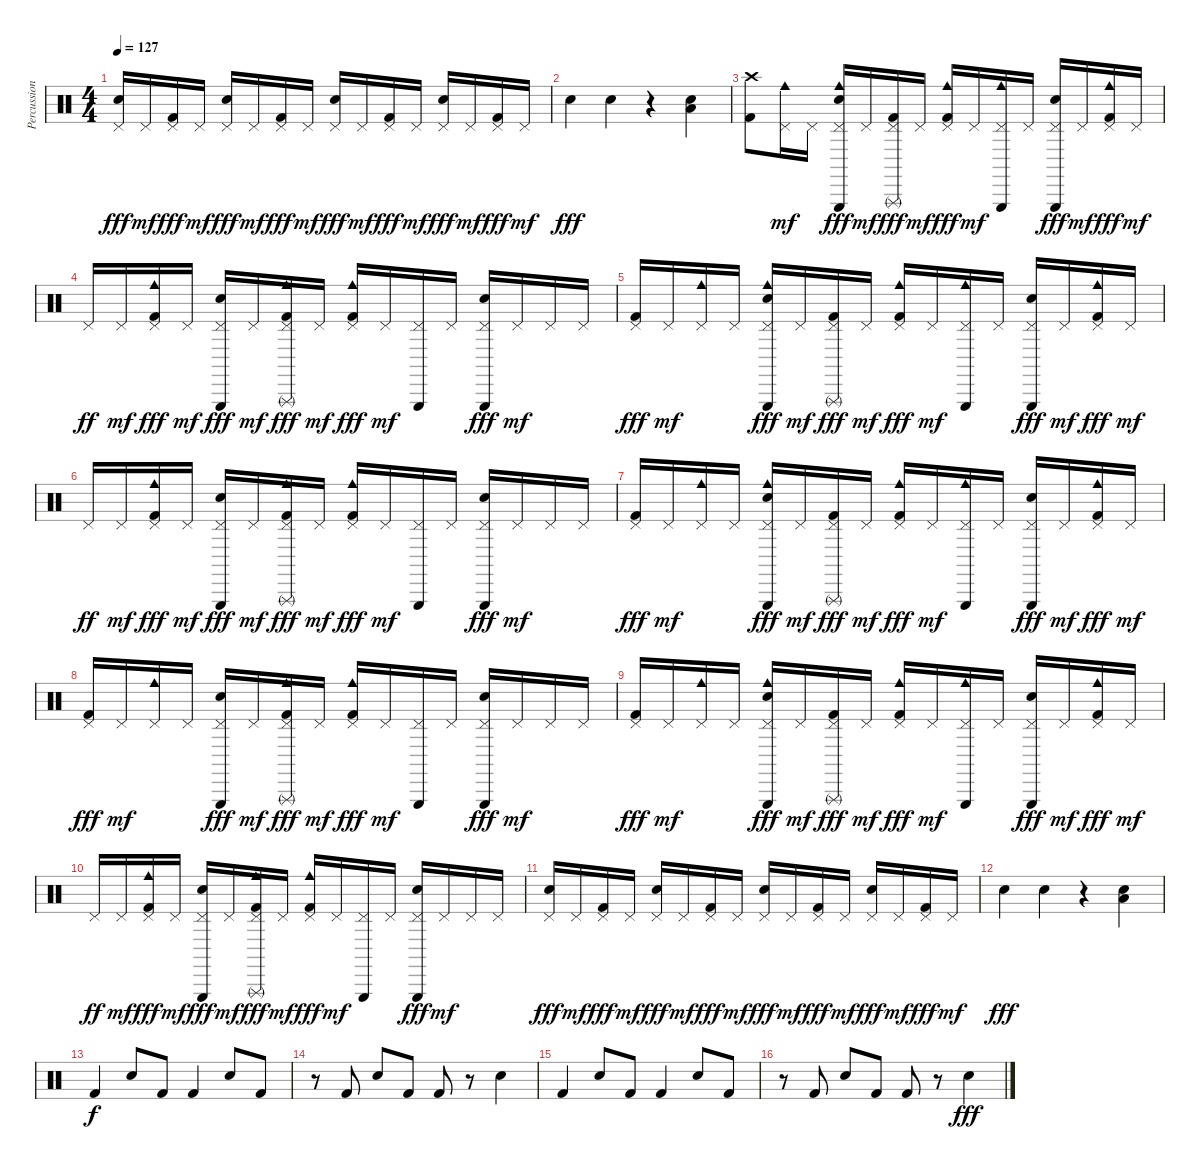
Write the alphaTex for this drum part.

\track ("Percussion" "Percussion") {instrument percussion}
\staff {score}
\articulation defaults
\ts (4 4)
\tempo 127
\clef neutral
\ks c
("Pedal Hi-Hat (hit)" "Electric Snare (hit)").16{dy fff} "Pedal Hi-Hat (hit)".16{dy mf} ("Pedal Hi-Hat (hit)" "Kick (hit) 2").16{dy fff} "Pedal Hi-Hat (hit)".16{dy mf} ("Pedal Hi-Hat (hit)" "Electric Snare (hit)").16{dy fff} "Pedal Hi-Hat (hit)".16{dy mf} ("Pedal Hi-Hat (hit)" "Kick (hit) 2").16{dy fff} "Pedal Hi-Hat (hit)".16{dy mf} ("Pedal Hi-Hat (hit)" "Electric Snare (hit)").16{dy fff} "Pedal Hi-Hat (hit)".16{dy mf} ("Pedal Hi-Hat (hit)" "Kick (hit) 2").16{dy fff} "Pedal Hi-Hat (hit)".16{dy mf} ("Pedal Hi-Hat (hit)" "Electric Snare (hit)").16{dy fff} "Pedal Hi-Hat (hit)".16{dy mf} ("Pedal Hi-Hat (hit)" "Kick (hit) 2").16{dy fff} "Pedal Hi-Hat (hit)".16{dy mf} |
"Electric Snare (hit)".4{dy fff} "Electric Snare (hit)".4 r.4 ("Electric Snare (hit)" "Low Tom (hit)").4 |
("Crash high (hit)" "Kick (hit) 2").8 ("Pedal Hi-Hat (hit)" "Cowbell medium (hit)").16{dy mf} "Pedal Hi-Hat (hit)".16 ("Pedal Hi-Hat (hit)" "Triangle (hit)" "Electric Snare (hit)" "Cowbell medium (hit)").16{dy fff} "Pedal Hi-Hat (hit)".16{dy mf} ("Pedal Hi-Hat (hit)" "Triangle (rnute)" "Kick (hit) 2").16{dy fff} "Pedal Hi-Hat (hit)".16{dy mf} ("Pedal Hi-Hat (hit)" "Cowbell medium (hit)" "Kick (hit) 2").16{dy fff} "Pedal Hi-Hat (hit)".16{dy mf} ("Pedal Hi-Hat (hit)" "Triangle (hit)" "Cowbell medium (hit)").16 "Pedal Hi-Hat (hit)".16 ("Pedal Hi-Hat (hit)" "Triangle (hit)" "Electric Snare (hit)").16{dy fff} "Pedal Hi-Hat (hit)".16{dy mf} ("Pedal Hi-Hat (hit)" "Cowbell medium (hit)" "Kick (hit) 2").16{dy fff} "Pedal Hi-Hat (hit)".16{dy mf} |
"Pedal Hi-Hat (hit)".16{dy ff} "Pedal Hi-Hat (hit)".16{dy mf} ("Pedal Hi-Hat (hit)" "Cowbell medium (hit)" "Kick (hit) 2").16{dy fff} "Pedal Hi-Hat (hit)".16{dy mf} ("Pedal Hi-Hat (hit)" "Triangle (hit)" "Electric Snare (hit)").16{dy fff} "Pedal Hi-Hat (hit)".16{dy mf} ("Pedal Hi-Hat (hit)" "Triangle (rnute)" "Cowbell medium (hit)" "Kick (hit) 2").16{dy fff} "Pedal Hi-Hat (hit)".16{dy mf} ("Pedal Hi-Hat (hit)" "Cowbell medium (hit)" "Kick (hit) 2").16{dy fff} "Pedal Hi-Hat (hit)".16{dy mf} ("Pedal Hi-Hat (hit)" "Triangle (hit)").16 "Pedal Hi-Hat (hit)".16 ("Pedal Hi-Hat (hit)" "Triangle (hit)" "Electric Snare (hit)").16{dy fff} "Pedal Hi-Hat (hit)".16{dy mf} "Pedal Hi-Hat (hit)".16 "Pedal Hi-Hat (hit)".16 |
("Pedal Hi-Hat (hit)" "Kick (hit) 2").16{dy fff} "Pedal Hi-Hat (hit)".16{dy mf} ("Pedal Hi-Hat (hit)" "Cowbell medium (hit)").16 "Pedal Hi-Hat (hit)".16 ("Pedal Hi-Hat (hit)" "Triangle (hit)" "Electric Snare (hit)" "Cowbell medium (hit)").16{dy fff} "Pedal Hi-Hat (hit)".16{dy mf} ("Pedal Hi-Hat (hit)" "Triangle (rnute)" "Kick (hit) 2").16{dy fff} "Pedal Hi-Hat (hit)".16{dy mf} ("Pedal Hi-Hat (hit)" "Cowbell medium (hit)" "Kick (hit) 2").16{dy fff} "Pedal Hi-Hat (hit)".16{dy mf} ("Pedal Hi-Hat (hit)" "Triangle (hit)" "Cowbell medium (hit)").16 "Pedal Hi-Hat (hit)".16 ("Pedal Hi-Hat (hit)" "Triangle (hit)" "Electric Snare (hit)").16{dy fff} "Pedal Hi-Hat (hit)".16{dy mf} ("Pedal Hi-Hat (hit)" "Cowbell medium (hit)" "Kick (hit) 2").16{dy fff} "Pedal Hi-Hat (hit)".16{dy mf} |
"Pedal Hi-Hat (hit)".16{dy ff} "Pedal Hi-Hat (hit)".16{dy mf} ("Pedal Hi-Hat (hit)" "Cowbell medium (hit)" "Kick (hit) 2").16{dy fff} "Pedal Hi-Hat (hit)".16{dy mf} ("Pedal Hi-Hat (hit)" "Triangle (hit)" "Electric Snare (hit)").16{dy fff} "Pedal Hi-Hat (hit)".16{dy mf} ("Pedal Hi-Hat (hit)" "Triangle (rnute)" "Cowbell medium (hit)" "Kick (hit) 2").16{dy fff} "Pedal Hi-Hat (hit)".16{dy mf} ("Pedal Hi-Hat (hit)" "Cowbell medium (hit)" "Kick (hit) 2").16{dy fff} "Pedal Hi-Hat (hit)".16{dy mf} ("Pedal Hi-Hat (hit)" "Triangle (hit)").16 "Pedal Hi-Hat (hit)".16 ("Pedal Hi-Hat (hit)" "Triangle (hit)" "Electric Snare (hit)").16{dy fff} "Pedal Hi-Hat (hit)".16{dy mf} "Pedal Hi-Hat (hit)".16 "Pedal Hi-Hat (hit)".16 |
("Pedal Hi-Hat (hit)" "Kick (hit) 2").16{dy fff} "Pedal Hi-Hat (hit)".16{dy mf} ("Pedal Hi-Hat (hit)" "Cowbell medium (hit)").16 "Pedal Hi-Hat (hit)".16 ("Pedal Hi-Hat (hit)" "Triangle (hit)" "Electric Snare (hit)" "Cowbell medium (hit)").16{dy fff} "Pedal Hi-Hat (hit)".16{dy mf} ("Pedal Hi-Hat (hit)" "Triangle (rnute)" "Kick (hit) 2").16{dy fff} "Pedal Hi-Hat (hit)".16{dy mf} ("Pedal Hi-Hat (hit)" "Cowbell medium (hit)" "Kick (hit) 2").16{dy fff} "Pedal Hi-Hat (hit)".16{dy mf} ("Pedal Hi-Hat (hit)" "Triangle (hit)" "Cowbell medium (hit)").16 "Pedal Hi-Hat (hit)".16 ("Pedal Hi-Hat (hit)" "Triangle (hit)" "Electric Snare (hit)").16{dy fff} "Pedal Hi-Hat (hit)".16{dy mf} ("Pedal Hi-Hat (hit)" "Cowbell medium (hit)" "Kick (hit) 2").16{dy fff} "Pedal Hi-Hat (hit)".16{dy mf} |
("Pedal Hi-Hat (hit)" "Kick (hit) 2").16{dy fff} "Pedal Hi-Hat (hit)".16{dy mf} ("Pedal Hi-Hat (hit)" "Cowbell medium (hit)").16 "Pedal Hi-Hat (hit)".16 ("Pedal Hi-Hat (hit)" "Triangle (hit)" "Electric Snare (hit)").16{dy fff} "Pedal Hi-Hat (hit)".16{dy mf} ("Pedal Hi-Hat (hit)" "Triangle (rnute)" "Cowbell medium (hit)" "Kick (hit) 2").16{dy fff} "Pedal Hi-Hat (hit)".16{dy mf} ("Pedal Hi-Hat (hit)" "Cowbell medium (hit)" "Kick (hit) 2").16{dy fff} "Pedal Hi-Hat (hit)".16{dy mf} ("Pedal Hi-Hat (hit)" "Triangle (hit)").16 "Pedal Hi-Hat (hit)".16 ("Pedal Hi-Hat (hit)" "Triangle (hit)" "Electric Snare (hit)").16{dy fff} "Pedal Hi-Hat (hit)".16{dy mf} "Pedal Hi-Hat (hit)".16 "Pedal Hi-Hat (hit)".16 |
("Pedal Hi-Hat (hit)" "Kick (hit) 2").16{dy fff} "Pedal Hi-Hat (hit)".16{dy mf} ("Pedal Hi-Hat (hit)" "Cowbell medium (hit)").16 "Pedal Hi-Hat (hit)".16 ("Pedal Hi-Hat (hit)" "Triangle (hit)" "Electric Snare (hit)" "Cowbell medium (hit)").16{dy fff} "Pedal Hi-Hat (hit)".16{dy mf} ("Pedal Hi-Hat (hit)" "Triangle (rnute)" "Kick (hit) 2").16{dy fff} "Pedal Hi-Hat (hit)".16{dy mf} ("Pedal Hi-Hat (hit)" "Cowbell medium (hit)" "Kick (hit) 2").16{dy fff} "Pedal Hi-Hat (hit)".16{dy mf} ("Pedal Hi-Hat (hit)" "Triangle (hit)" "Cowbell medium (hit)").16 "Pedal Hi-Hat (hit)".16 ("Pedal Hi-Hat (hit)" "Triangle (hit)" "Electric Snare (hit)").16{dy fff} "Pedal Hi-Hat (hit)".16{dy mf} ("Pedal Hi-Hat (hit)" "Cowbell medium (hit)" "Kick (hit) 2").16{dy fff} "Pedal Hi-Hat (hit)".16{dy mf} |
"Pedal Hi-Hat (hit)".16{dy ff} "Pedal Hi-Hat (hit)".16{dy mf} ("Pedal Hi-Hat (hit)" "Cowbell medium (hit)" "Kick (hit) 2").16{dy fff} "Pedal Hi-Hat (hit)".16{dy mf} ("Pedal Hi-Hat (hit)" "Triangle (hit)" "Electric Snare (hit)").16{dy fff} "Pedal Hi-Hat (hit)".16{dy mf} ("Pedal Hi-Hat (hit)" "Triangle (rnute)" "Cowbell medium (hit)" "Kick (hit) 2").16{dy fff} "Pedal Hi-Hat (hit)".16{dy mf} ("Pedal Hi-Hat (hit)" "Cowbell medium (hit)" "Kick (hit) 2").16{dy fff} "Pedal Hi-Hat (hit)".16{dy mf} ("Pedal Hi-Hat (hit)" "Triangle (hit)").16 "Pedal Hi-Hat (hit)".16 ("Pedal Hi-Hat (hit)" "Triangle (hit)" "Electric Snare (hit)").16{dy fff} "Pedal Hi-Hat (hit)".16{dy mf} "Pedal Hi-Hat (hit)".16 "Pedal Hi-Hat (hit)".16 |
("Pedal Hi-Hat (hit)" "Electric Snare (hit)").16{dy fff} "Pedal Hi-Hat (hit)".16{dy mf} ("Pedal Hi-Hat (hit)" "Kick (hit) 2").16{dy fff} "Pedal Hi-Hat (hit)".16{dy mf} ("Pedal Hi-Hat (hit)" "Electric Snare (hit)").16{dy fff} "Pedal Hi-Hat (hit)".16{dy mf} ("Pedal Hi-Hat (hit)" "Kick (hit) 2").16{dy fff} "Pedal Hi-Hat (hit)".16{dy mf} ("Pedal Hi-Hat (hit)" "Electric Snare (hit)").16{dy fff} "Pedal Hi-Hat (hit)".16{dy mf} ("Pedal Hi-Hat (hit)" "Kick (hit) 2").16{dy fff} "Pedal Hi-Hat (hit)".16{dy mf} ("Pedal Hi-Hat (hit)" "Electric Snare (hit)").16{dy fff} "Pedal Hi-Hat (hit)".16{dy mf} ("Pedal Hi-Hat (hit)" "Kick (hit) 2").16{dy fff} "Pedal Hi-Hat (hit)".16{dy mf} |
"Electric Snare (hit)".4{dy fff} "Electric Snare (hit)".4 r.4 ("Electric Snare (hit)" "Low Tom (hit)").4 |
"Kick (hit) 2".4{dy f} "Electric Snare (hit)".8 "Kick (hit) 2".8 "Kick (hit) 2".4 "Electric Snare (hit)".8 "Kick (hit) 2".8 |
r.8 "Kick (hit) 2".8 "Electric Snare (hit)".8 "Kick (hit) 2".8 "Kick (hit) 2".8 r.8 "Electric Snare (hit)".4 |
"Kick (hit) 2".4 "Electric Snare (hit)".8 "Kick (hit) 2".8 "Kick (hit) 2".4 "Electric Snare (hit)".8 "Kick (hit) 2".8 |
r.8 "Kick (hit) 2".8 "Electric Snare (hit)".8 "Kick (hit) 2".8 "Kick (hit) 2".8 r.8 "Electric Snare (hit)".4{dy fff}
